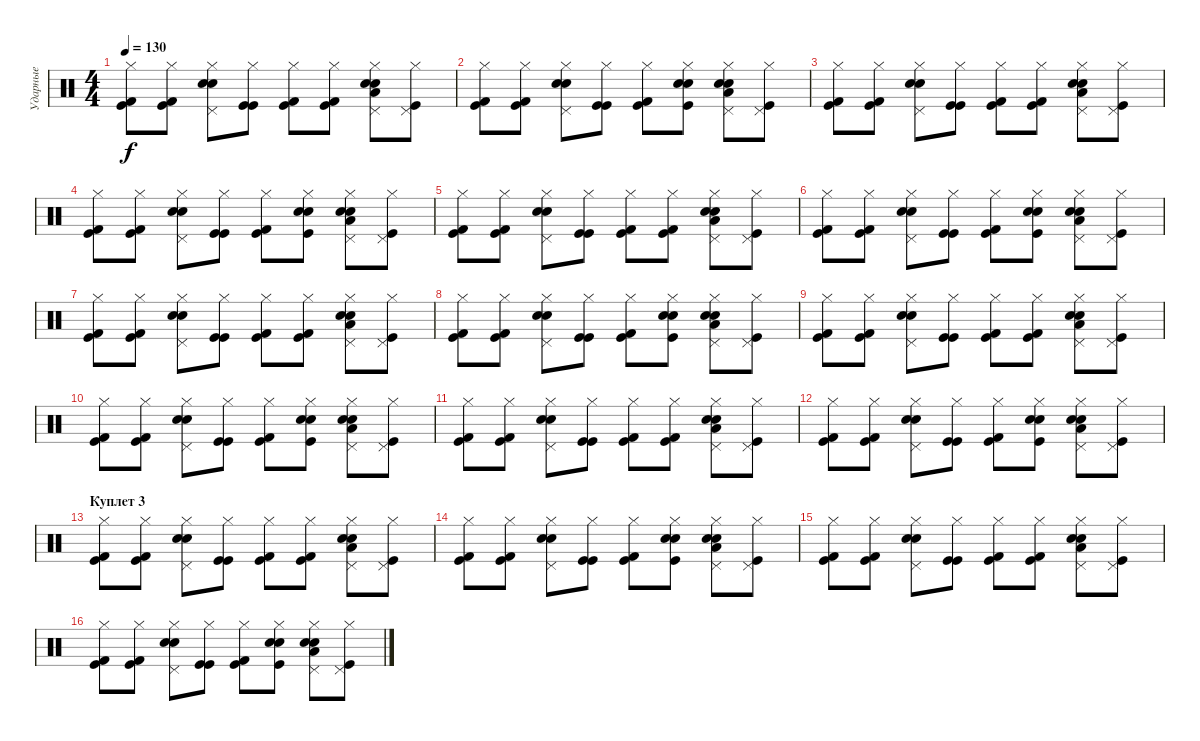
\track ("Ударные" "Ударные") {instrument percussion}
\staff {score}
\articulation defaults
\ts (4 4)
\tempo 130
\clef neutral
\ks c
("Kick (hit)" "Kick (hit) 2" "Hi-Hat (closed)").8{dy f} ("Kick (hit)" "Kick (hit) 2" "Hi-Hat (closed)").8 ("Electric Snare (hit)" "Pedal Hi-Hat (hit)" "Hi-Hat (closed)" "Snare (hit) 2").8 ("Kick (hit)" "Kick (hit)" "Hi-Hat (closed)").8 ("Kick (hit)" "Kick (hit) 2" "Hi-Hat (closed)").8 ("Kick (hit)" "Kick (hit) 2" "Hi-Hat (closed)").8 ("Low Tom (hit)" "Electric Snare (hit)" "Pedal Hi-Hat (hit)" "Hi-Hat (closed)" "Snare (hit) 2").8 ("Pedal Hi-Hat (hit)" "Kick (hit)" "Hi-Hat (closed)").8 |
("Kick (hit)" "Kick (hit) 2" "Hi-Hat (closed)").8 ("Kick (hit)" "Kick (hit) 2" "Hi-Hat (closed)").8 ("Snare (hit) 2" "Electric Snare (hit)" "Pedal Hi-Hat (hit)" "Hi-Hat (closed)").8 ("Kick (hit)" "Kick (hit)" "Hi-Hat (closed)").8 ("Kick (hit)" "Kick (hit) 2" "Hi-Hat (closed)").8 ("Kick (hit)" "Electric Snare (hit)" "Hi-Hat (closed)" "Snare (hit) 2").8 ("Low Tom (hit)" "Electric Snare (hit)" "Pedal Hi-Hat (hit)" "Hi-Hat (closed)" "Snare (hit) 2").8 ("Pedal Hi-Hat (hit)" "Kick (hit)" "Hi-Hat (closed)").8 |
("Kick (hit)" "Kick (hit) 2" "Hi-Hat (closed)").8 ("Kick (hit)" "Kick (hit) 2" "Hi-Hat (closed)").8 ("Electric Snare (hit)" "Pedal Hi-Hat (hit)" "Hi-Hat (closed)" "Snare (hit) 2").8 ("Kick (hit)" "Kick (hit)" "Hi-Hat (closed)").8 ("Kick (hit)" "Kick (hit) 2" "Hi-Hat (closed)").8 ("Kick (hit)" "Kick (hit) 2" "Hi-Hat (closed)").8 ("Low Tom (hit)" "Electric Snare (hit)" "Pedal Hi-Hat (hit)" "Hi-Hat (closed)" "Snare (hit) 2").8 ("Pedal Hi-Hat (hit)" "Kick (hit)" "Hi-Hat (closed)").8 |
("Kick (hit)" "Kick (hit) 2" "Hi-Hat (closed)").8 ("Kick (hit)" "Kick (hit) 2" "Hi-Hat (closed)").8 ("Snare (hit) 2" "Electric Snare (hit)" "Pedal Hi-Hat (hit)" "Hi-Hat (closed)").8 ("Kick (hit)" "Kick (hit)" "Hi-Hat (closed)").8 ("Kick (hit)" "Kick (hit) 2" "Hi-Hat (closed)").8 ("Kick (hit)" "Electric Snare (hit)" "Hi-Hat (closed)" "Snare (hit) 2").8 ("Low Tom (hit)" "Electric Snare (hit)" "Pedal Hi-Hat (hit)" "Hi-Hat (closed)" "Snare (hit) 2").8 ("Pedal Hi-Hat (hit)" "Kick (hit)" "Hi-Hat (closed)").8 |
("Kick (hit)" "Kick (hit) 2" "Hi-Hat (closed)").8 ("Kick (hit)" "Kick (hit) 2" "Hi-Hat (closed)").8 ("Electric Snare (hit)" "Pedal Hi-Hat (hit)" "Hi-Hat (closed)" "Snare (hit) 2").8 ("Kick (hit)" "Kick (hit)" "Hi-Hat (closed)").8 ("Kick (hit)" "Kick (hit) 2" "Hi-Hat (closed)").8 ("Kick (hit)" "Kick (hit) 2" "Hi-Hat (closed)").8 ("Low Tom (hit)" "Electric Snare (hit)" "Pedal Hi-Hat (hit)" "Hi-Hat (closed)" "Snare (hit) 2").8 ("Pedal Hi-Hat (hit)" "Kick (hit)" "Hi-Hat (closed)").8 |
("Kick (hit)" "Kick (hit) 2" "Hi-Hat (closed)").8 ("Kick (hit)" "Kick (hit) 2" "Hi-Hat (closed)").8 ("Snare (hit) 2" "Electric Snare (hit)" "Pedal Hi-Hat (hit)" "Hi-Hat (closed)").8 ("Kick (hit)" "Kick (hit)" "Hi-Hat (closed)").8 ("Kick (hit)" "Kick (hit) 2" "Hi-Hat (closed)").8 ("Kick (hit)" "Electric Snare (hit)" "Hi-Hat (closed)" "Snare (hit) 2").8 ("Low Tom (hit)" "Electric Snare (hit)" "Pedal Hi-Hat (hit)" "Hi-Hat (closed)" "Snare (hit) 2").8 ("Pedal Hi-Hat (hit)" "Kick (hit)" "Hi-Hat (closed)").8 |
("Kick (hit)" "Kick (hit) 2" "Hi-Hat (closed)").8 ("Kick (hit)" "Kick (hit) 2" "Hi-Hat (closed)").8 ("Electric Snare (hit)" "Pedal Hi-Hat (hit)" "Hi-Hat (closed)" "Snare (hit) 2").8 ("Kick (hit)" "Kick (hit)" "Hi-Hat (closed)").8 ("Kick (hit)" "Kick (hit) 2" "Hi-Hat (closed)").8 ("Kick (hit)" "Kick (hit) 2" "Hi-Hat (closed)").8 ("Low Tom (hit)" "Electric Snare (hit)" "Pedal Hi-Hat (hit)" "Hi-Hat (closed)" "Snare (hit) 2").8 ("Pedal Hi-Hat (hit)" "Kick (hit)" "Hi-Hat (closed)").8 |
("Kick (hit)" "Kick (hit) 2" "Hi-Hat (closed)").8 ("Kick (hit)" "Kick (hit) 2" "Hi-Hat (closed)").8 ("Snare (hit) 2" "Electric Snare (hit)" "Pedal Hi-Hat (hit)" "Hi-Hat (closed)").8 ("Kick (hit)" "Kick (hit)" "Hi-Hat (closed)").8 ("Kick (hit)" "Kick (hit) 2" "Hi-Hat (closed)").8 ("Kick (hit)" "Electric Snare (hit)" "Hi-Hat (closed)" "Snare (hit) 2").8 ("Low Tom (hit)" "Electric Snare (hit)" "Pedal Hi-Hat (hit)" "Hi-Hat (closed)" "Snare (hit) 2").8 ("Pedal Hi-Hat (hit)" "Kick (hit)" "Hi-Hat (closed)").8 |
("Kick (hit)" "Kick (hit) 2" "Hi-Hat (closed)").8 ("Kick (hit)" "Kick (hit) 2" "Hi-Hat (closed)").8 ("Electric Snare (hit)" "Pedal Hi-Hat (hit)" "Hi-Hat (closed)" "Snare (hit) 2").8 ("Kick (hit)" "Kick (hit)" "Hi-Hat (closed)").8 ("Kick (hit)" "Kick (hit) 2" "Hi-Hat (closed)").8 ("Kick (hit)" "Kick (hit) 2" "Hi-Hat (closed)").8 ("Low Tom (hit)" "Electric Snare (hit)" "Pedal Hi-Hat (hit)" "Hi-Hat (closed)" "Snare (hit) 2").8 ("Pedal Hi-Hat (hit)" "Kick (hit)" "Hi-Hat (closed)").8 |
("Kick (hit)" "Kick (hit) 2" "Hi-Hat (closed)").8 ("Kick (hit)" "Kick (hit) 2" "Hi-Hat (closed)").8 ("Snare (hit) 2" "Electric Snare (hit)" "Pedal Hi-Hat (hit)" "Hi-Hat (closed)").8 ("Kick (hit)" "Kick (hit)" "Hi-Hat (closed)").8 ("Kick (hit)" "Kick (hit) 2" "Hi-Hat (closed)").8 ("Kick (hit)" "Electric Snare (hit)" "Hi-Hat (closed)" "Snare (hit) 2").8 ("Low Tom (hit)" "Electric Snare (hit)" "Pedal Hi-Hat (hit)" "Hi-Hat (closed)" "Snare (hit) 2").8 ("Pedal Hi-Hat (hit)" "Kick (hit)" "Hi-Hat (closed)").8 |
("Kick (hit)" "Kick (hit) 2" "Hi-Hat (closed)").8 ("Kick (hit)" "Kick (hit) 2" "Hi-Hat (closed)").8 ("Electric Snare (hit)" "Pedal Hi-Hat (hit)" "Hi-Hat (closed)" "Snare (hit) 2").8 ("Kick (hit)" "Kick (hit)" "Hi-Hat (closed)").8 ("Kick (hit)" "Kick (hit) 2" "Hi-Hat (closed)").8 ("Kick (hit)" "Kick (hit) 2" "Hi-Hat (closed)").8 ("Low Tom (hit)" "Electric Snare (hit)" "Pedal Hi-Hat (hit)" "Hi-Hat (closed)" "Snare (hit) 2").8 ("Pedal Hi-Hat (hit)" "Kick (hit)" "Hi-Hat (closed)").8 |
("Kick (hit)" "Kick (hit) 2" "Hi-Hat (closed)").8 ("Kick (hit)" "Kick (hit) 2" "Hi-Hat (closed)").8 ("Snare (hit) 2" "Electric Snare (hit)" "Pedal Hi-Hat (hit)" "Hi-Hat (closed)").8 ("Kick (hit)" "Kick (hit)" "Hi-Hat (closed)").8 ("Kick (hit)" "Kick (hit) 2" "Hi-Hat (closed)").8 ("Kick (hit)" "Electric Snare (hit)" "Hi-Hat (closed)" "Snare (hit) 2").8 ("Low Tom (hit)" "Electric Snare (hit)" "Pedal Hi-Hat (hit)" "Hi-Hat (closed)" "Snare (hit) 2").8 ("Pedal Hi-Hat (hit)" "Kick (hit)" "Hi-Hat (closed)").8 |
\section ("" "Куплет 3")
("Kick (hit)" "Kick (hit) 2" "Hi-Hat (closed)").8 ("Kick (hit)" "Kick (hit) 2" "Hi-Hat (closed)").8 ("Electric Snare (hit)" "Pedal Hi-Hat (hit)" "Hi-Hat (closed)" "Snare (hit) 2").8 ("Kick (hit)" "Kick (hit)" "Hi-Hat (closed)").8 ("Kick (hit)" "Kick (hit) 2" "Hi-Hat (closed)").8 ("Kick (hit)" "Kick (hit) 2" "Hi-Hat (closed)").8 ("Low Tom (hit)" "Electric Snare (hit)" "Pedal Hi-Hat (hit)" "Hi-Hat (closed)" "Snare (hit) 2").8 ("Pedal Hi-Hat (hit)" "Kick (hit)" "Hi-Hat (closed)").8 |
("Kick (hit)" "Kick (hit) 2" "Hi-Hat (closed)").8 ("Kick (hit)" "Kick (hit) 2" "Hi-Hat (closed)").8 ("Snare (hit) 2" "Electric Snare (hit)" "Pedal Hi-Hat (hit)" "Hi-Hat (closed)").8 ("Kick (hit)" "Kick (hit)" "Hi-Hat (closed)").8 ("Kick (hit)" "Kick (hit) 2" "Hi-Hat (closed)").8 ("Kick (hit)" "Electric Snare (hit)" "Hi-Hat (closed)" "Snare (hit) 2").8 ("Low Tom (hit)" "Electric Snare (hit)" "Pedal Hi-Hat (hit)" "Hi-Hat (closed)" "Snare (hit) 2").8 ("Pedal Hi-Hat (hit)" "Kick (hit)" "Hi-Hat (closed)").8 |
("Kick (hit)" "Kick (hit) 2" "Hi-Hat (closed)").8 ("Kick (hit)" "Kick (hit) 2" "Hi-Hat (closed)").8 ("Electric Snare (hit)" "Pedal Hi-Hat (hit)" "Hi-Hat (closed)" "Snare (hit) 2").8 ("Kick (hit)" "Kick (hit)" "Hi-Hat (closed)").8 ("Kick (hit)" "Kick (hit) 2" "Hi-Hat (closed)").8 ("Kick (hit)" "Kick (hit) 2" "Hi-Hat (closed)").8 ("Low Tom (hit)" "Electric Snare (hit)" "Pedal Hi-Hat (hit)" "Hi-Hat (closed)" "Snare (hit) 2").8 ("Pedal Hi-Hat (hit)" "Kick (hit)" "Hi-Hat (closed)").8 |
("Kick (hit)" "Kick (hit) 2" "Hi-Hat (closed)").8 ("Kick (hit)" "Kick (hit) 2" "Hi-Hat (closed)").8 ("Snare (hit) 2" "Electric Snare (hit)" "Pedal Hi-Hat (hit)" "Hi-Hat (closed)").8 ("Kick (hit)" "Kick (hit)" "Hi-Hat (closed)").8 ("Kick (hit)" "Kick (hit) 2" "Hi-Hat (closed)").8 ("Kick (hit)" "Electric Snare (hit)" "Hi-Hat (closed)" "Snare (hit) 2").8 ("Low Tom (hit)" "Electric Snare (hit)" "Pedal Hi-Hat (hit)" "Hi-Hat (closed)" "Snare (hit) 2").8 ("Pedal Hi-Hat (hit)" "Kick (hit)" "Hi-Hat (closed)").8
